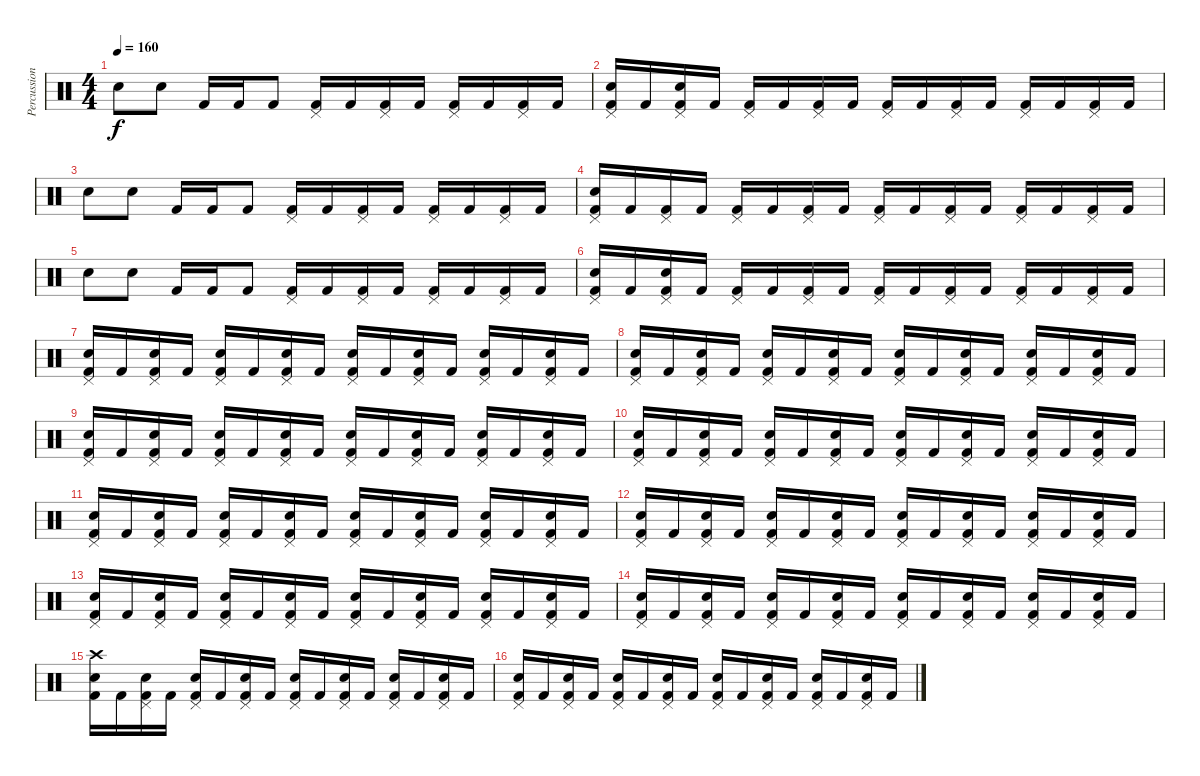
\track ("Percussion" "Percussion") {instrument percussion}
\staff {score}
\articulation defaults
\ts (4 4)
\tempo 160
\clef neutral
\ks c "Snare (hit) 2".8{dy f} "Snare (hit) 2".8 "Kick (hit) 2".16 "Kick (hit) 2".16 "Kick (hit) 2".8
("Pedal Hi-Hat (hit)" "Kick (hit) 2").16 "Kick (hit) 2".16 ("Pedal Hi-Hat (hit)" "Kick (hit) 2").16 "Kick (hit) 2".16 ("Pedal Hi-Hat (hit)" "Kick (hit) 2").16 "Kick (hit) 2".16 ("Pedal Hi-Hat (hit)" "Kick (hit) 2").16 "Kick (hit) 2".16 |
("Pedal Hi-Hat (hit)" "Snare (hit) 2" "Kick (hit) 2").16 "Kick (hit) 2".16 ("Pedal Hi-Hat (hit)" "Snare (hit) 2" "Kick (hit) 2").16 "Kick (hit) 2".16 ("Pedal Hi-Hat (hit)" "Kick (hit) 2").16 "Kick (hit) 2".16 ("Pedal Hi-Hat (hit)" "Kick (hit) 2").16 "Kick (hit) 2".16 ("Pedal Hi-Hat (hit)" "Kick (hit) 2").16 "Kick (hit) 2".16 ("Pedal Hi-Hat (hit)" "Kick (hit) 2").16 "Kick (hit) 2".16 ("Pedal Hi-Hat (hit)" "Kick (hit) 2").16 "Kick (hit) 2".16 ("Pedal Hi-Hat (hit)" "Kick (hit) 2").16 "Kick (hit) 2".16 |
"Snare (hit) 2".8 "Snare (hit) 2".8 "Kick (hit) 2".16 "Kick (hit) 2".16 "Kick (hit) 2".8 ("Pedal Hi-Hat (hit)" "Kick (hit) 2").16 "Kick (hit) 2".16 ("Pedal Hi-Hat (hit)" "Kick (hit) 2").16 "Kick (hit) 2".16 ("Pedal Hi-Hat (hit)" "Kick (hit) 2").16 "Kick (hit) 2".16 ("Pedal Hi-Hat (hit)" "Kick (hit) 2").16 "Kick (hit) 2".16 |
("Pedal Hi-Hat (hit)" "Snare (hit) 2" "Kick (hit) 2").16 "Kick (hit) 2".16 ("Pedal Hi-Hat (hit)" "Kick (hit) 2").16 "Kick (hit) 2".16 ("Pedal Hi-Hat (hit)" "Kick (hit) 2").16 "Kick (hit) 2".16 ("Pedal Hi-Hat (hit)" "Kick (hit) 2").16 "Kick (hit) 2".16 ("Pedal Hi-Hat (hit)" "Kick (hit) 2").16 "Kick (hit) 2".16 ("Pedal Hi-Hat (hit)" "Kick (hit) 2").16 "Kick (hit) 2".16 ("Pedal Hi-Hat (hit)" "Kick (hit) 2").16 "Kick (hit) 2".16 ("Pedal Hi-Hat (hit)" "Kick (hit) 2").16 "Kick (hit) 2".16 |
"Snare (hit) 2".8 "Snare (hit) 2".8 "Kick (hit) 2".16 "Kick (hit) 2".16 "Kick (hit) 2".8 ("Pedal Hi-Hat (hit)" "Kick (hit) 2").16 "Kick (hit) 2".16 ("Pedal Hi-Hat (hit)" "Kick (hit) 2").16 "Kick (hit) 2".16 ("Pedal Hi-Hat (hit)" "Kick (hit) 2").16 "Kick (hit) 2".16 ("Pedal Hi-Hat (hit)" "Kick (hit) 2").16 "Kick (hit) 2".16 |
("Pedal Hi-Hat (hit)" "Snare (hit) 2" "Kick (hit) 2").16 "Kick (hit) 2".16 ("Pedal Hi-Hat (hit)" "Snare (hit) 2" "Kick (hit) 2").16 "Kick (hit) 2".16 ("Pedal Hi-Hat (hit)" "Kick (hit) 2").16 "Kick (hit) 2".16 ("Pedal Hi-Hat (hit)" "Kick (hit) 2").16 "Kick (hit) 2".16 ("Pedal Hi-Hat (hit)" "Kick (hit) 2").16 "Kick (hit) 2".16 ("Pedal Hi-Hat (hit)" "Kick (hit) 2").16 "Kick (hit) 2".16 ("Pedal Hi-Hat (hit)" "Kick (hit) 2").16 "Kick (hit) 2".16 ("Pedal Hi-Hat (hit)" "Kick (hit) 2").16 "Kick (hit) 2".16 |
("Pedal Hi-Hat (hit)" "Snare (hit) 2" "Kick (hit) 2").16 "Kick (hit) 2".16 ("Pedal Hi-Hat (hit)" "Snare (hit) 2" "Kick (hit) 2").16 "Kick (hit) 2".16 ("Pedal Hi-Hat (hit)" "Snare (hit) 2" "Kick (hit) 2").16 "Kick (hit) 2".16 ("Pedal Hi-Hat (hit)" "Snare (hit) 2" "Kick (hit) 2").16 "Kick (hit) 2".16 ("Pedal Hi-Hat (hit)" "Snare (hit) 2" "Kick (hit) 2").16 "Kick (hit) 2".16 ("Pedal Hi-Hat (hit)" "Snare (hit) 2" "Kick (hit) 2").16 "Kick (hit) 2".16 ("Pedal Hi-Hat (hit)" "Snare (hit) 2" "Kick (hit) 2").16 "Kick (hit) 2".16 ("Pedal Hi-Hat (hit)" "Snare (hit) 2" "Kick (hit) 2").16 "Kick (hit) 2".16 |
("Pedal Hi-Hat (hit)" "Snare (hit) 2" "Kick (hit) 2").16 "Kick (hit) 2".16 ("Pedal Hi-Hat (hit)" "Snare (hit) 2" "Kick (hit) 2").16 "Kick (hit) 2".16 ("Pedal Hi-Hat (hit)" "Snare (hit) 2" "Kick (hit) 2").16 "Kick (hit) 2".16 ("Pedal Hi-Hat (hit)" "Snare (hit) 2" "Kick (hit) 2").16 "Kick (hit) 2".16 ("Pedal Hi-Hat (hit)" "Snare (hit) 2" "Kick (hit) 2").16 "Kick (hit) 2".16 ("Pedal Hi-Hat (hit)" "Snare (hit) 2" "Kick (hit) 2").16 "Kick (hit) 2".16 ("Pedal Hi-Hat (hit)" "Snare (hit) 2" "Kick (hit) 2").16 "Kick (hit) 2".16 ("Pedal Hi-Hat (hit)" "Snare (hit) 2" "Kick (hit) 2").16 "Kick (hit) 2".16 |
("Pedal Hi-Hat (hit)" "Snare (hit) 2" "Kick (hit) 2").16 "Kick (hit) 2".16 ("Pedal Hi-Hat (hit)" "Snare (hit) 2" "Kick (hit) 2").16 "Kick (hit) 2".16 ("Pedal Hi-Hat (hit)" "Snare (hit) 2" "Kick (hit) 2").16 "Kick (hit) 2".16 ("Pedal Hi-Hat (hit)" "Snare (hit) 2" "Kick (hit) 2").16 "Kick (hit) 2".16 ("Pedal Hi-Hat (hit)" "Snare (hit) 2" "Kick (hit) 2").16 "Kick (hit) 2".16 ("Pedal Hi-Hat (hit)" "Snare (hit) 2" "Kick (hit) 2").16 "Kick (hit) 2".16 ("Pedal Hi-Hat (hit)" "Snare (hit) 2" "Kick (hit) 2").16 "Kick (hit) 2".16 ("Pedal Hi-Hat (hit)" "Snare (hit) 2" "Kick (hit) 2").16 "Kick (hit) 2".16 |
("Pedal Hi-Hat (hit)" "Snare (hit) 2" "Kick (hit) 2").16 "Kick (hit) 2".16 ("Pedal Hi-Hat (hit)" "Snare (hit) 2" "Kick (hit) 2").16 "Kick (hit) 2".16 ("Pedal Hi-Hat (hit)" "Snare (hit) 2" "Kick (hit) 2").16 "Kick (hit) 2".16 ("Pedal Hi-Hat (hit)" "Snare (hit) 2" "Kick (hit) 2").16 "Kick (hit) 2".16 ("Pedal Hi-Hat (hit)" "Snare (hit) 2" "Kick (hit) 2").16 "Kick (hit) 2".16 ("Pedal Hi-Hat (hit)" "Snare (hit) 2" "Kick (hit) 2").16 "Kick (hit) 2".16 ("Pedal Hi-Hat (hit)" "Snare (hit) 2" "Kick (hit) 2").16 "Kick (hit) 2".16 ("Pedal Hi-Hat (hit)" "Snare (hit) 2" "Kick (hit) 2").16 "Kick (hit) 2".16 |
("Pedal Hi-Hat (hit)" "Snare (hit) 2" "Kick (hit) 2").16 "Kick (hit) 2".16 ("Pedal Hi-Hat (hit)" "Snare (hit) 2" "Kick (hit) 2").16 "Kick (hit) 2".16 ("Pedal Hi-Hat (hit)" "Snare (hit) 2" "Kick (hit) 2").16 "Kick (hit) 2".16 ("Pedal Hi-Hat (hit)" "Snare (hit) 2" "Kick (hit) 2").16 "Kick (hit) 2".16 ("Pedal Hi-Hat (hit)" "Snare (hit) 2" "Kick (hit) 2").16 "Kick (hit) 2".16 ("Pedal Hi-Hat (hit)" "Snare (hit) 2" "Kick (hit) 2").16 "Kick (hit) 2".16 ("Pedal Hi-Hat (hit)" "Snare (hit) 2" "Kick (hit) 2").16 "Kick (hit) 2".16 ("Pedal Hi-Hat (hit)" "Snare (hit) 2" "Kick (hit) 2").16 "Kick (hit) 2".16 |
("Pedal Hi-Hat (hit)" "Snare (hit) 2" "Kick (hit) 2").16 "Kick (hit) 2".16 ("Pedal Hi-Hat (hit)" "Snare (hit) 2" "Kick (hit) 2").16 "Kick (hit) 2".16 ("Pedal Hi-Hat (hit)" "Snare (hit) 2" "Kick (hit) 2").16 "Kick (hit) 2".16 ("Pedal Hi-Hat (hit)" "Snare (hit) 2" "Kick (hit) 2").16 "Kick (hit) 2".16 ("Pedal Hi-Hat (hit)" "Snare (hit) 2" "Kick (hit) 2").16 "Kick (hit) 2".16 ("Pedal Hi-Hat (hit)" "Snare (hit) 2" "Kick (hit) 2").16 "Kick (hit) 2".16 ("Pedal Hi-Hat (hit)" "Snare (hit) 2" "Kick (hit) 2").16 "Kick (hit) 2".16 ("Pedal Hi-Hat (hit)" "Snare (hit) 2" "Kick (hit) 2").16 "Kick (hit) 2".16 |
("Pedal Hi-Hat (hit)" "Snare (hit) 2" "Kick (hit) 2").16 "Kick (hit) 2".16 ("Pedal Hi-Hat (hit)" "Snare (hit) 2" "Kick (hit) 2").16 "Kick (hit) 2".16 ("Pedal Hi-Hat (hit)" "Snare (hit) 2" "Kick (hit) 2").16 "Kick (hit) 2".16 ("Pedal Hi-Hat (hit)" "Snare (hit) 2" "Kick (hit) 2").16 "Kick (hit) 2".16 ("Pedal Hi-Hat (hit)" "Snare (hit) 2" "Kick (hit) 2").16 "Kick (hit) 2".16 ("Pedal Hi-Hat (hit)" "Snare (hit) 2" "Kick (hit) 2").16 "Kick (hit) 2".16 ("Pedal Hi-Hat (hit)" "Snare (hit) 2" "Kick (hit) 2").16 "Kick (hit) 2".16 ("Pedal Hi-Hat (hit)" "Snare (hit) 2" "Kick (hit) 2").16 "Kick (hit) 2".16 |
("Pedal Hi-Hat (hit)" "Snare (hit) 2" "Kick (hit) 2").16 "Kick (hit) 2".16 ("Pedal Hi-Hat (hit)" "Snare (hit) 2" "Kick (hit) 2").16 "Kick (hit) 2".16 ("Pedal Hi-Hat (hit)" "Snare (hit) 2" "Kick (hit) 2").16 "Kick (hit) 2".16 ("Pedal Hi-Hat (hit)" "Snare (hit) 2" "Kick (hit) 2").16 "Kick (hit) 2".16 ("Pedal Hi-Hat (hit)" "Snare (hit) 2" "Kick (hit) 2").16 "Kick (hit) 2".16 ("Pedal Hi-Hat (hit)" "Snare (hit) 2" "Kick (hit) 2").16 "Kick (hit) 2".16 ("Pedal Hi-Hat (hit)" "Snare (hit) 2" "Kick (hit) 2").16 "Kick (hit) 2".16 ("Pedal Hi-Hat (hit)" "Snare (hit) 2" "Kick (hit) 2").16 "Kick (hit) 2".16 |
("Crash high (hit)" "Snare (hit) 2" "Kick (hit) 2").16 "Kick (hit) 2".16 ("Pedal Hi-Hat (hit)" "Snare (hit) 2" "Kick (hit) 2").16 "Kick (hit) 2".16 ("Pedal Hi-Hat (hit)" "Snare (hit) 2" "Kick (hit) 2").16 "Kick (hit) 2".16 ("Pedal Hi-Hat (hit)" "Snare (hit) 2" "Kick (hit) 2").16 "Kick (hit) 2".16 ("Pedal Hi-Hat (hit)" "Snare (hit) 2" "Kick (hit) 2").16 "Kick (hit) 2".16 ("Pedal Hi-Hat (hit)" "Snare (hit) 2" "Kick (hit) 2").16 "Kick (hit) 2".16 ("Pedal Hi-Hat (hit)" "Snare (hit) 2" "Kick (hit) 2").16 "Kick (hit) 2".16 ("Pedal Hi-Hat (hit)" "Snare (hit) 2" "Kick (hit) 2").16 "Kick (hit) 2".16 |
("Pedal Hi-Hat (hit)" "Snare (hit) 2" "Kick (hit) 2").16 "Kick (hit) 2".16 ("Pedal Hi-Hat (hit)" "Snare (hit) 2" "Kick (hit) 2").16 "Kick (hit) 2".16 ("Pedal Hi-Hat (hit)" "Snare (hit) 2" "Kick (hit) 2").16 "Kick (hit) 2".16 ("Pedal Hi-Hat (hit)" "Snare (hit) 2" "Kick (hit) 2").16 "Kick (hit) 2".16 ("Pedal Hi-Hat (hit)" "Snare (hit) 2" "Kick (hit) 2").16 "Kick (hit) 2".16 ("Pedal Hi-Hat (hit)" "Snare (hit) 2" "Kick (hit) 2").16 "Kick (hit) 2".16 ("Pedal Hi-Hat (hit)" "Snare (hit) 2" "Kick (hit) 2").16 "Kick (hit) 2".16 ("Pedal Hi-Hat (hit)" "Snare (hit) 2" "Kick (hit) 2").16 "Kick (hit) 2".16
